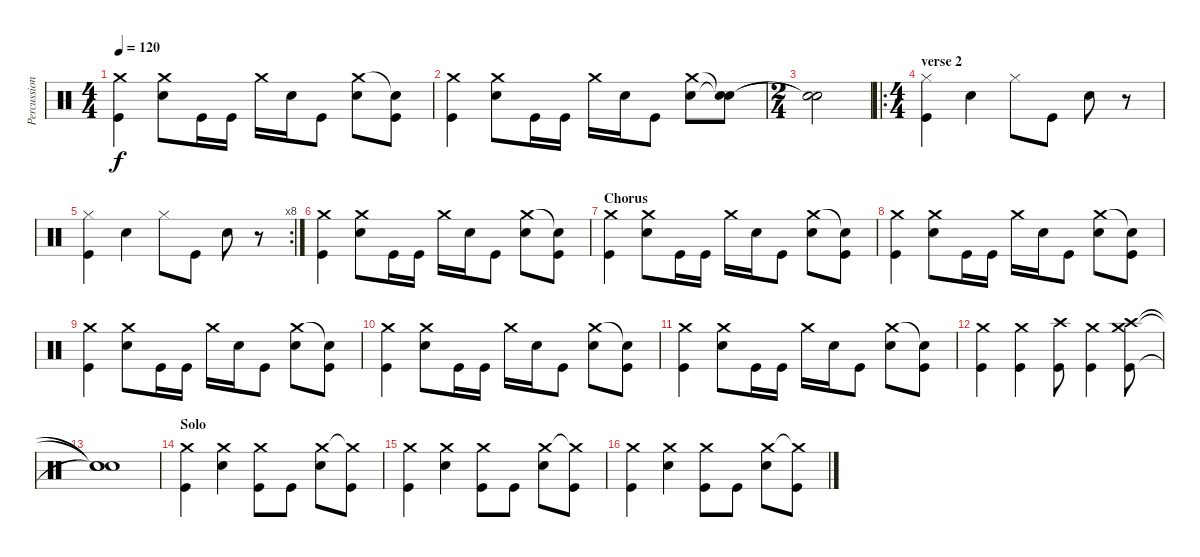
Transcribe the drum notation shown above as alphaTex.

\track ("Percussion" "Percussion") {instrument percussion}
\staff {score}
\articulation defaults
\ts (4 4)
\tempo 120
\clef neutral
\ks c
("Crash medium (hit)" "Kick (hit)").4{dy f} ("Crash medium (hit)" "Snare (hit) 2").8 "Kick (hit)".16 "Kick (hit)".16 "Crash medium (hit)".16 "Snare (hit) 2".16 "Kick (hit)".8 ("Crash medium (hit)" "Snare (hit) 2").8 ("Snare (hit)"{t} "Kick (hit)").8 |
("Crash medium (hit)" "Kick (hit)").4 ("Crash medium (hit)" "Snare (hit) 2").8 "Kick (hit)".16 "Kick (hit)".16 "Crash medium (hit)".16 "Snare (hit) 2".16 "Kick (hit)".8 ("Crash medium (hit)" "Snare (hit) 2").8 ("Snare (hit)"{t} "Snare (hit)"{t}).8 |
\ts (2 4)
("Snare (hit)"{t} "Snare (hit)"{t}).2 |
\ro
\ts (4 4)
\section ("" "verse 2")
("Hi-Hat (closed)" "Kick (hit)").4 "Snare (hit) 2".4 "Hi-Hat (closed)".8 "Kick (hit)".8 "Snare (hit) 2".8 r.8 |
\rc 8
("Hi-Hat (closed)" "Kick (hit)").4 "Snare (hit) 2".4 "Hi-Hat (closed)".8 "Kick (hit)".8 "Snare (hit) 2".8 r.8 |
("Crash medium (hit)" "Kick (hit)").4 ("Crash medium (hit)" "Snare (hit) 2").8 "Kick (hit)".16 "Kick (hit)".16 "Crash medium (hit)".16 "Snare (hit) 2".16 "Kick (hit)".8 ("Crash medium (hit)" "Snare (hit) 2").8 ("Snare (hit)"{t} "Kick (hit)").8 |
\section ("" "Chorus")
("Crash medium (hit)" "Kick (hit)").4 ("Crash medium (hit)" "Snare (hit) 2").8 "Kick (hit)".16 "Kick (hit)".16 "Crash medium (hit)".16 "Snare (hit) 2".16 "Kick (hit)".8 ("Crash medium (hit)" "Snare (hit) 2").8 ("Snare (hit)"{t} "Kick (hit)").8 |
("Crash medium (hit)" "Kick (hit)").4 ("Crash medium (hit)" "Snare (hit) 2").8 "Kick (hit)".16 "Kick (hit)".16 "Crash medium (hit)".16 "Snare (hit) 2".16 "Kick (hit)".8 ("Crash medium (hit)" "Snare (hit) 2").8 ("Snare (hit)"{t} "Kick (hit)").8 |
("Crash medium (hit)" "Kick (hit)").4 ("Crash medium (hit)" "Snare (hit) 2").8 "Kick (hit)".16 "Kick (hit)".16 "Crash medium (hit)".16 "Snare (hit) 2".16 "Kick (hit)".8 ("Crash medium (hit)" "Snare (hit) 2").8 ("Snare (hit)"{t} "Kick (hit)").8 |
("Crash medium (hit)" "Kick (hit)").4 ("Crash medium (hit)" "Snare (hit) 2").8 "Kick (hit)".16 "Kick (hit)".16 "Crash medium (hit)".16 "Snare (hit) 2".16 "Kick (hit)".8 ("Crash medium (hit)" "Snare (hit) 2").8 ("Snare (hit)"{t} "Kick (hit)").8 |
("Crash medium (hit)" "Kick (hit)").4 ("Crash medium (hit)" "Snare (hit) 2").8 "Kick (hit)".16 "Kick (hit)".16 "Crash medium (hit)".16 "Snare (hit) 2".16 "Kick (hit)".8 ("Crash medium (hit)" "Snare (hit) 2").8 ("Snare (hit)"{t} "Kick (hit)").8 |
("Crash medium (hit)" "Kick (hit)").4 ("Crash medium (hit)" "Kick (hit)").4 ("Crash high (hit)" "Kick (hit)").8 ("Crash medium (hit)" "Kick (hit)").4 ("Crash medium (hit)" "Crash high (hit)" "Kick (hit)").8 |
("Snare (hit)"{t} "Snare (hit)"{t} "Snare (hit)"{t}).1 |
\section ("" "Solo")
("Crash medium (hit)" "Kick (hit)").4 ("Snare (hit) 2" "Crash medium (hit)").4 ("Crash medium (hit)" "Kick (hit)").8 "Kick (hit)".8 ("Crash medium (hit)" "Snare (hit) 2").8 ("Crash medium (hit)"{t} "Kick (hit)").8 |
("Crash medium (hit)" "Kick (hit)").4 ("Snare (hit) 2" "Crash medium (hit)").4 ("Crash medium (hit)" "Kick (hit)").8 "Kick (hit)".8 ("Crash medium (hit)" "Snare (hit) 2").8 ("Crash medium (hit)"{t} "Kick (hit)").8 |
("Crash medium (hit)" "Kick (hit)").4 ("Snare (hit) 2" "Crash medium (hit)").4 ("Crash medium (hit)" "Kick (hit)").8 "Kick (hit)".8 ("Crash medium (hit)" "Snare (hit) 2").8 ("Crash medium (hit)"{t} "Kick (hit)").8
